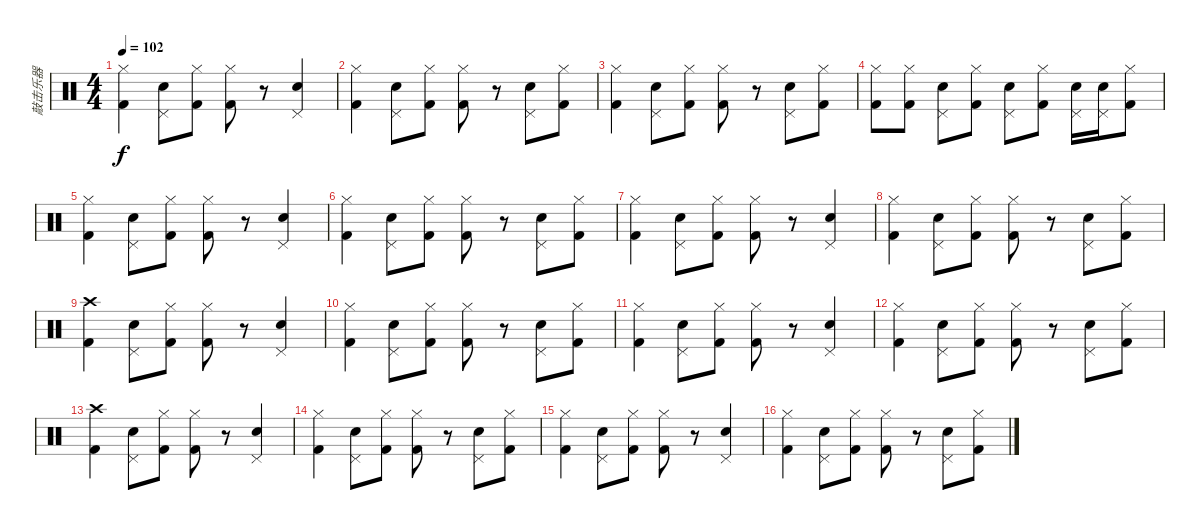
\track ("敲击乐器" "敲击乐器") {instrument percussion}
\staff {score}
\articulation defaults
\ts (4 4)
\tempo 102
\clef neutral
\ks c
("Hi-Hat (closed)" "Kick (hit) 2").4{dy f} ("Pedal Hi-Hat (hit)" "Snare (hit) 2").8 ("Hi-Hat (closed)" "Kick (hit) 2").8 ("Hi-Hat (closed)" "Kick (hit) 2").8 r.8 ("Pedal Hi-Hat (hit)" "Snare (hit) 2").4 |
("Hi-Hat (closed)" "Kick (hit) 2").4 ("Pedal Hi-Hat (hit)" "Snare (hit) 2").8 ("Hi-Hat (closed)" "Kick (hit) 2").8 ("Hi-Hat (closed)" "Kick (hit) 2").8 r.8 ("Pedal Hi-Hat (hit)" "Snare (hit) 2").8 ("Hi-Hat (closed)" "Kick (hit) 2").8 |
("Hi-Hat (closed)" "Kick (hit) 2").4 ("Pedal Hi-Hat (hit)" "Snare (hit) 2").8 ("Hi-Hat (closed)" "Kick (hit) 2").8 ("Hi-Hat (closed)" "Kick (hit) 2").8 r.8 ("Pedal Hi-Hat (hit)" "Snare (hit) 2").8 ("Hi-Hat (closed)" "Kick (hit) 2").8 |
("Hi-Hat (closed)" "Kick (hit) 2").8 ("Hi-Hat (closed)" "Kick (hit) 2").8 ("Pedal Hi-Hat (hit)" "Snare (hit) 2").8 ("Hi-Hat (closed)" "Kick (hit) 2").8 ("Pedal Hi-Hat (hit)" "Snare (hit) 2").8 ("Hi-Hat (closed)" "Kick (hit) 2").8 ("Pedal Hi-Hat (hit)" "Snare (hit) 2").16 ("Pedal Hi-Hat (hit)" "Snare (hit) 2").16 ("Hi-Hat (closed)" "Kick (hit) 2").8 |
("Hi-Hat (closed)" "Kick (hit) 2").4 ("Pedal Hi-Hat (hit)" "Snare (hit) 2").8 ("Hi-Hat (closed)" "Kick (hit) 2").8 ("Hi-Hat (closed)" "Kick (hit) 2").8 r.8 ("Pedal Hi-Hat (hit)" "Snare (hit) 2").4 |
("Hi-Hat (closed)" "Kick (hit) 2").4 ("Pedal Hi-Hat (hit)" "Snare (hit) 2").8 ("Hi-Hat (closed)" "Kick (hit) 2").8 ("Hi-Hat (closed)" "Kick (hit) 2").8 r.8 ("Pedal Hi-Hat (hit)" "Snare (hit) 2").8 ("Hi-Hat (closed)" "Kick (hit) 2").8 |
("Hi-Hat (closed)" "Kick (hit) 2").4 ("Pedal Hi-Hat (hit)" "Snare (hit) 2").8 ("Hi-Hat (closed)" "Kick (hit) 2").8 ("Hi-Hat (closed)" "Kick (hit) 2").8 r.8 ("Pedal Hi-Hat (hit)" "Snare (hit) 2").4 |
("Hi-Hat (closed)" "Kick (hit) 2").4 ("Pedal Hi-Hat (hit)" "Snare (hit) 2").8 ("Hi-Hat (closed)" "Kick (hit) 2").8 ("Hi-Hat (closed)" "Kick (hit) 2").8 r.8 ("Pedal Hi-Hat (hit)" "Snare (hit) 2").8 ("Hi-Hat (closed)" "Kick (hit) 2").8 |
("Crash high (hit)" "Kick (hit) 2").4 ("Pedal Hi-Hat (hit)" "Snare (hit) 2").8 ("Hi-Hat (closed)" "Kick (hit) 2").8 ("Hi-Hat (closed)" "Kick (hit) 2").8 r.8 ("Pedal Hi-Hat (hit)" "Snare (hit) 2").4 |
("Hi-Hat (closed)" "Kick (hit) 2").4 ("Pedal Hi-Hat (hit)" "Snare (hit) 2").8 ("Hi-Hat (closed)" "Kick (hit) 2").8 ("Hi-Hat (closed)" "Kick (hit) 2").8 r.8 ("Pedal Hi-Hat (hit)" "Snare (hit) 2").8 ("Hi-Hat (closed)" "Kick (hit) 2").8 |
("Hi-Hat (closed)" "Kick (hit) 2").4 ("Pedal Hi-Hat (hit)" "Snare (hit) 2").8 ("Hi-Hat (closed)" "Kick (hit) 2").8 ("Hi-Hat (closed)" "Kick (hit) 2").8 r.8 ("Pedal Hi-Hat (hit)" "Snare (hit) 2").4 |
("Hi-Hat (closed)" "Kick (hit) 2").4 ("Pedal Hi-Hat (hit)" "Snare (hit) 2").8 ("Hi-Hat (closed)" "Kick (hit) 2").8 ("Hi-Hat (closed)" "Kick (hit) 2").8 r.8 ("Pedal Hi-Hat (hit)" "Snare (hit) 2").8 ("Hi-Hat (closed)" "Kick (hit) 2").8 |
("Crash high (hit)" "Kick (hit) 2").4 ("Pedal Hi-Hat (hit)" "Snare (hit) 2").8 ("Hi-Hat (closed)" "Kick (hit) 2").8 ("Hi-Hat (closed)" "Kick (hit) 2").8 r.8 ("Pedal Hi-Hat (hit)" "Snare (hit) 2").4 |
("Hi-Hat (closed)" "Kick (hit) 2").4 ("Pedal Hi-Hat (hit)" "Snare (hit) 2").8 ("Hi-Hat (closed)" "Kick (hit) 2").8 ("Hi-Hat (closed)" "Kick (hit) 2").8 r.8 ("Pedal Hi-Hat (hit)" "Snare (hit) 2").8 ("Hi-Hat (closed)" "Kick (hit) 2").8 |
("Hi-Hat (closed)" "Kick (hit) 2").4 ("Pedal Hi-Hat (hit)" "Snare (hit) 2").8 ("Hi-Hat (closed)" "Kick (hit) 2").8 ("Hi-Hat (closed)" "Kick (hit) 2").8 r.8 ("Pedal Hi-Hat (hit)" "Snare (hit) 2").4 |
("Hi-Hat (closed)" "Kick (hit) 2").4 ("Pedal Hi-Hat (hit)" "Snare (hit) 2").8 ("Hi-Hat (closed)" "Kick (hit) 2").8 ("Hi-Hat (closed)" "Kick (hit) 2").8 r.8 ("Pedal Hi-Hat (hit)" "Snare (hit) 2").8 ("Hi-Hat (closed)" "Kick (hit) 2").8
